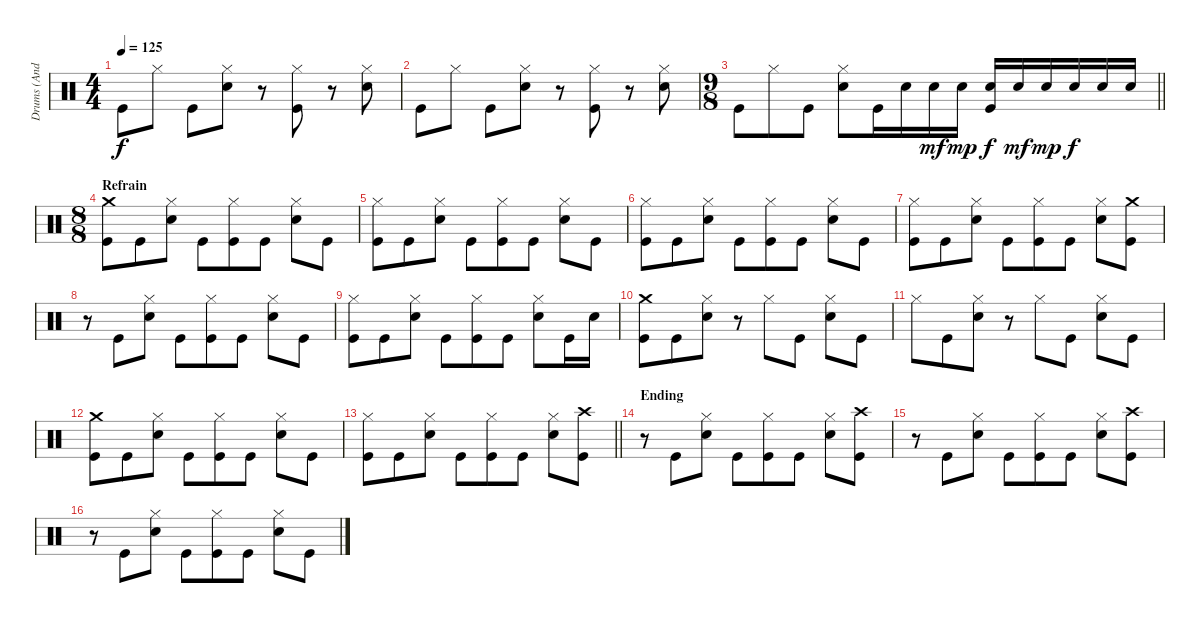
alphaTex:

\track ("Drums (Andy Parker)" "Drums (And") {instrument percussion}
\staff {score}
\articulation defaults
\ts (4 4)
\tempo 125
\clef neutral
\ks c "Kick (hit)".8{dy f} "Hi-Hat (closed)".8 "Kick (hit)".8
("Hi-Hat (closed)" "Electric Snare (hit)").8 r.8 ("Hi-Hat (closed)" "Kick (hit)").8 r.8 ("Hi-Hat (closed)" "Electric Snare (hit)").8 |
"Kick (hit)".8 "Hi-Hat (closed)".8 "Kick (hit)".8 ("Hi-Hat (closed)" "Electric Snare (hit)").8 r.8 ("Hi-Hat (closed)" "Kick (hit)").8 r.8 ("Hi-Hat (closed)" "Electric Snare (hit)").8 |
\ts (9 8)
\barLineRight lightlight "Kick (hit)".8 "Hi-Hat (closed)".8 "Kick (hit)".8
("Hi-Hat (closed)" "Electric Snare (hit)").8 "Kick (hit)".16 "Electric Snare (hit)".16 "Electric Snare (hit)".16{dy mf} "Electric Snare (hit)".16{dy mp} ("Electric Snare (hit)" "Kick (hit)").16{dy f} "Electric Snare (hit)".16{dy mf} "Electric Snare (hit)".16{dy mp} "Electric Snare (hit)".16{dy f} "Electric Snare (hit)".16 "Electric Snare (hit)".16 |
\ts (8 8)
\section ("" "Refrain")
("Crash medium (hit)" "Kick (hit)").8 "Kick (hit)".8 ("Hi-Hat (closed)" "Electric Snare (hit)").8 "Kick (hit)".8 ("Hi-Hat (closed)" "Kick (hit)").8 "Kick (hit)".8 ("Hi-Hat (closed)" "Electric Snare (hit)").8 "Kick (hit)".8 |
("Hi-Hat (closed)" "Kick (hit)").8 "Kick (hit)".8 ("Hi-Hat (closed)" "Electric Snare (hit)").8 "Kick (hit)".8 ("Hi-Hat (closed)" "Kick (hit)").8 "Kick (hit)".8 ("Hi-Hat (closed)" "Electric Snare (hit)").8 "Kick (hit)".8 |
("Hi-Hat (closed)" "Kick (hit)").8 "Kick (hit)".8 ("Hi-Hat (closed)" "Electric Snare (hit)").8 "Kick (hit)".8 ("Hi-Hat (closed)" "Kick (hit)").8 "Kick (hit)".8 ("Hi-Hat (closed)" "Electric Snare (hit)").8 "Kick (hit)".8 |
("Hi-Hat (closed)" "Kick (hit)").8 "Kick (hit)".8 ("Hi-Hat (closed)" "Electric Snare (hit)").8 "Kick (hit)".8 ("Hi-Hat (closed)" "Kick (hit)").8 "Kick (hit)".8 ("Hi-Hat (closed)" "Electric Snare (hit)").8 ("Crash medium (hit)" "Kick (hit)").8 |
r.8 "Kick (hit)".8 ("Hi-Hat (closed)" "Electric Snare (hit)").8 "Kick (hit)".8 ("Hi-Hat (closed)" "Kick (hit)").8 "Kick (hit)".8 ("Hi-Hat (closed)" "Electric Snare (hit)").8 "Kick (hit)".8 |
("Hi-Hat (closed)" "Kick (hit)").8 "Kick (hit)".8 ("Hi-Hat (closed)" "Electric Snare (hit)").8 "Kick (hit)".8 ("Hi-Hat (closed)" "Kick (hit)").8 "Kick (hit)".8 ("Hi-Hat (closed)" "Electric Snare (hit)").8 "Kick (hit)".16 "Electric Snare (hit)".16 |
("Crash medium (hit)" "Kick (hit)").8 "Kick (hit)".8 ("Hi-Hat (closed)" "Electric Snare (hit)").8 r.8 "Hi-Hat (closed)".8 "Kick (hit)".8 ("Hi-Hat (closed)" "Electric Snare (hit)").8 "Kick (hit)".8 |
"Hi-Hat (closed)".8 "Kick (hit)".8 ("Hi-Hat (closed)" "Electric Snare (hit)").8 r.8 "Hi-Hat (closed)".8 "Kick (hit)".8 ("Hi-Hat (closed)" "Electric Snare (hit)").8 "Kick (hit)".8 |
("Crash medium (hit)" "Kick (hit)").8 "Kick (hit)".8 ("Hi-Hat (closed)" "Electric Snare (hit)").8 "Kick (hit)".8 ("Hi-Hat (closed)" "Kick (hit)").8 "Kick (hit)".8 ("Hi-Hat (closed)" "Electric Snare (hit)").8 "Kick (hit)".8 |
\barLineRight lightlight
("Hi-Hat (closed)" "Kick (hit)").8 "Kick (hit)".8 ("Hi-Hat (closed)" "Electric Snare (hit)").8 "Kick (hit)".8 ("Hi-Hat (closed)" "Kick (hit)").8 "Kick (hit)".8 ("Hi-Hat (closed)" "Electric Snare (hit)").8 ("Crash high (hit)" "Kick (hit)").8 |
\section ("" "Ending")
r.8 "Kick (hit)".8 ("Hi-Hat (closed)" "Electric Snare (hit)").8 "Kick (hit)".8 ("Hi-Hat (closed)" "Kick (hit)").8 "Kick (hit)".8 ("Hi-Hat (closed)" "Electric Snare (hit)").8 ("Crash high (hit)" "Kick (hit)").8 |
r.8 "Kick (hit)".8 ("Hi-Hat (closed)" "Electric Snare (hit)").8 "Kick (hit)".8 ("Hi-Hat (closed)" "Kick (hit)").8 "Kick (hit)".8 ("Hi-Hat (closed)" "Electric Snare (hit)").8 ("Crash high (hit)" "Kick (hit)").8 |
r.8 "Kick (hit)".8 ("Hi-Hat (closed)" "Electric Snare (hit)").8 "Kick (hit)".8 ("Hi-Hat (closed)" "Kick (hit)").8 "Kick (hit)".8 ("Hi-Hat (closed)" "Electric Snare (hit)").8 "Kick (hit)".8
